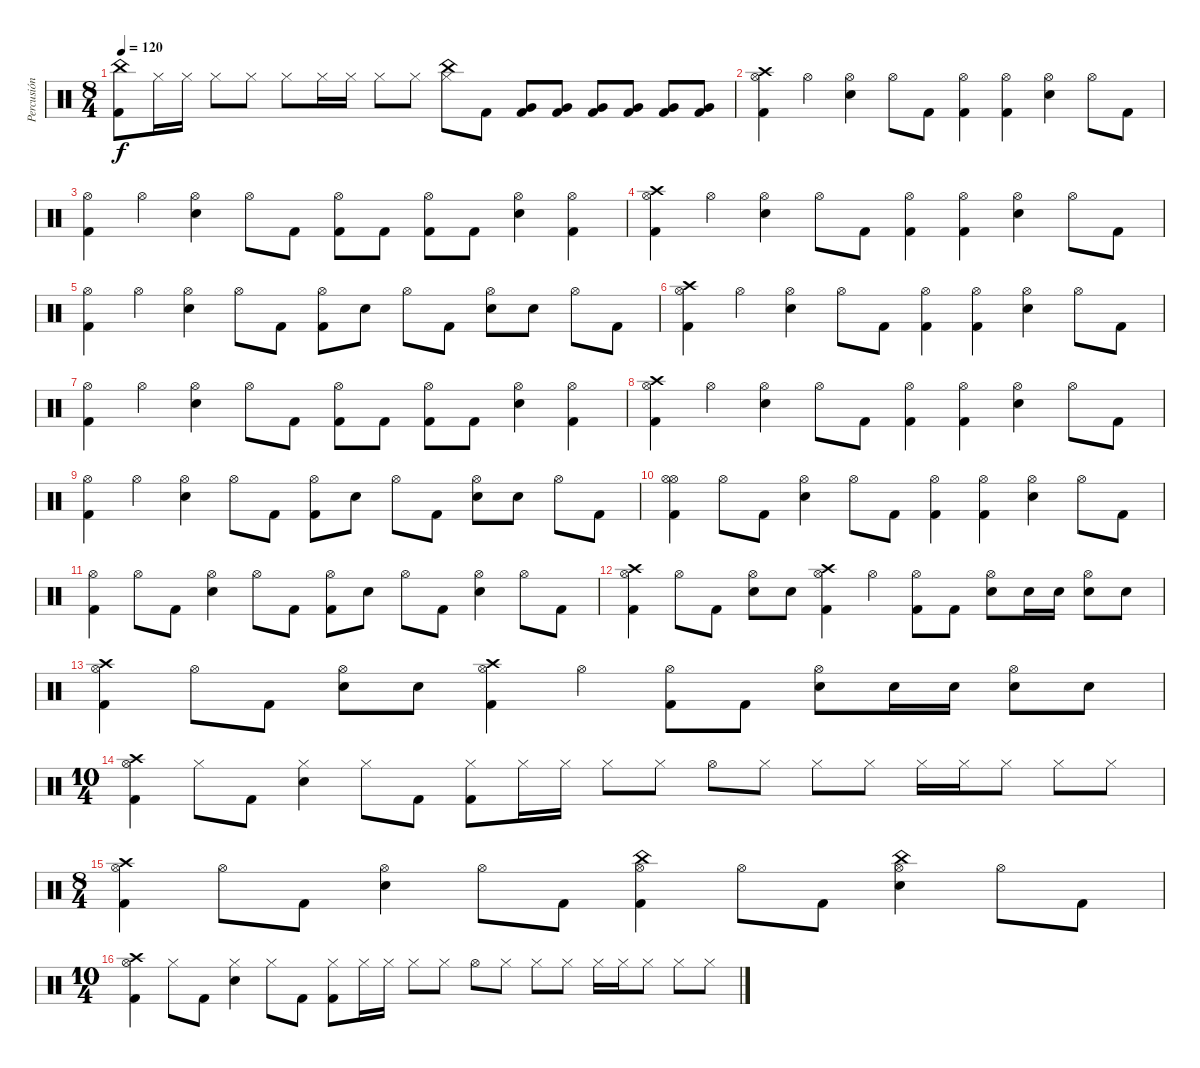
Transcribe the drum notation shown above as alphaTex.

\track ("Percusión" "Percusión") {instrument percussion}
\staff {score}
\articulation defaults
\ts (8 4)
\tempo 120
\clef neutral
\ks c
("China (hit)" "Kick (hit) 2").8{dy f} "Hi-Hat (closed)".16 "Hi-Hat (closed)".16 "Hi-Hat (closed)".8 "Hi-Hat (closed)".8 "Hi-Hat (closed)".8 "Hi-Hat (closed)".16 "Hi-Hat (closed)".16 "Hi-Hat (closed)".8 "Hi-Hat (closed)".8 ("China (hit)" "Hi-Hat (closed)").8 "Kick (hit) 2".8{volume 7} ("Very Low Tom (hit)" "Kick (hit) 2").8{volume 13} ("Very Low Tom (hit)" "Kick (hit) 2").8 ("Very Low Tom (hit)" "Kick (hit) 2").8 ("Very Low Tom (hit)" "Kick (hit) 2").8 ("Very Low Tom (hit)" "Kick (hit) 2").8 ("Very Low Tom (hit)" "Kick (hit) 2").8 |
("Crash high (hit)" "Hi-Hat (open)" "Kick (hit) 2").4 "Hi-Hat (open)".4 ("Hi-Hat (open)" "Electric Snare (hit)").4 "Hi-Hat (open)".8 "Kick (hit) 2".8 ("Hi-Hat (open)" "Kick (hit) 2").4 ("Hi-Hat (open)" "Kick (hit) 2").4 ("Hi-Hat (open)" "Electric Snare (hit)").4 "Hi-Hat (open)".8 "Kick (hit) 2".8 |
("Hi-Hat (open)" "Kick (hit) 2").4 "Hi-Hat (open)".4 ("Hi-Hat (open)" "Electric Snare (hit)").4 "Hi-Hat (open)".8 "Kick (hit) 2".8 ("Hi-Hat (open)" "Kick (hit) 2").8 "Kick (hit) 2".8 ("Hi-Hat (open)" "Kick (hit) 2").8 "Kick (hit) 2".8 ("Hi-Hat (open)" "Electric Snare (hit)").4 ("Hi-Hat (open)" "Kick (hit) 2").4 |
("Crash high (hit)" "Hi-Hat (open)" "Kick (hit) 2").4 "Hi-Hat (open)".4 ("Hi-Hat (open)" "Electric Snare (hit)").4 "Hi-Hat (open)".8 "Kick (hit) 2".8 ("Hi-Hat (open)" "Kick (hit) 2").4 ("Hi-Hat (open)" "Kick (hit) 2").4 ("Hi-Hat (open)" "Electric Snare (hit)").4 "Hi-Hat (open)".8 "Kick (hit) 2".8 |
("Hi-Hat (open)" "Kick (hit) 2").4 "Hi-Hat (open)".4 ("Hi-Hat (open)" "Electric Snare (hit)").4 "Hi-Hat (open)".8 "Kick (hit) 2".8 ("Hi-Hat (open)" "Kick (hit) 2").8 "Electric Snare (hit)".8 "Hi-Hat (open)".8 "Kick (hit) 2".8 ("Hi-Hat (open)" "Electric Snare (hit)").8 "Electric Snare (hit)".8 "Hi-Hat (open)".8 "Kick (hit) 2".8 |
("Crash high (hit)" "Hi-Hat (open)" "Kick (hit) 2").4 "Hi-Hat (open)".4 ("Hi-Hat (open)" "Electric Snare (hit)").4 "Hi-Hat (open)".8 "Kick (hit) 2".8 ("Hi-Hat (open)" "Kick (hit) 2").4 ("Hi-Hat (open)" "Kick (hit) 2").4 ("Hi-Hat (open)" "Electric Snare (hit)").4 "Hi-Hat (open)".8 "Kick (hit) 2".8 |
("Hi-Hat (open)" "Kick (hit) 2").4 "Hi-Hat (open)".4 ("Hi-Hat (open)" "Electric Snare (hit)").4 "Hi-Hat (open)".8 "Kick (hit) 2".8 ("Hi-Hat (open)" "Kick (hit) 2").8 "Kick (hit) 2".8 ("Hi-Hat (open)" "Kick (hit) 2").8 "Kick (hit) 2".8 ("Hi-Hat (open)" "Electric Snare (hit)").4 ("Hi-Hat (open)" "Kick (hit) 2").4 |
("Crash high (hit)" "Hi-Hat (open)" "Kick (hit) 2").4 "Hi-Hat (open)".4 ("Hi-Hat (open)" "Electric Snare (hit)").4 "Hi-Hat (open)".8 "Kick (hit) 2".8 ("Hi-Hat (open)" "Kick (hit) 2").4 ("Hi-Hat (open)" "Kick (hit) 2").4 ("Hi-Hat (open)" "Electric Snare (hit)").4 "Hi-Hat (open)".8 "Kick (hit) 2".8 |
("Hi-Hat (open)" "Kick (hit) 2").4 "Hi-Hat (open)".4 ("Hi-Hat (open)" "Electric Snare (hit)").4 "Hi-Hat (open)".8 "Kick (hit) 2".8 ("Hi-Hat (open)" "Kick (hit) 2").8 "Electric Snare (hit)".8 "Hi-Hat (open)".8 "Kick (hit) 2".8 ("Hi-Hat (open)" "Electric Snare (hit)").8 "Electric Snare (hit)".8 "Hi-Hat (open)".8 "Kick (hit) 2".8 |
("Hi-Hat (open)" "Hi-Hat (open)" "Kick (hit) 2").4 "Hi-Hat (open)".8 "Kick (hit) 2".8 ("Hi-Hat (open)" "Electric Snare (hit)").4 "Hi-Hat (open)".8 "Kick (hit) 2".8 ("Hi-Hat (open)" "Kick (hit) 2").4 ("Hi-Hat (open)" "Kick (hit) 2").4 ("Hi-Hat (open)" "Electric Snare (hit)").4 "Hi-Hat (open)".8 "Kick (hit) 2".8 |
("Hi-Hat (open)" "Kick (hit) 2").4 "Hi-Hat (open)".8 "Kick (hit) 2".8 ("Hi-Hat (open)" "Electric Snare (hit)").4 "Hi-Hat (open)".8 "Kick (hit) 2".8 ("Hi-Hat (open)" "Kick (hit) 2").8 "Electric Snare (hit)".8 "Hi-Hat (open)".8 "Kick (hit) 2".8 ("Hi-Hat (open)" "Electric Snare (hit)").4 "Hi-Hat (open)".8 "Kick (hit) 2".8 |
("Crash high (hit)" "Hi-Hat (open)" "Kick (hit) 2").4 "Hi-Hat (open)".8 "Kick (hit) 2".8 ("Hi-Hat (open)" "Electric Snare (hit)").8 "Electric Snare (hit)".8 ("Crash high (hit)" "Hi-Hat (open)" "Kick (hit) 2").4 "Hi-Hat (open)".4 ("Hi-Hat (open)" "Kick (hit) 2").8 "Kick (hit) 2".8 ("Hi-Hat (open)" "Electric Snare (hit)").8 "Electric Snare (hit)".16 "Electric Snare (hit)".16 ("Hi-Hat (open)" "Electric Snare (hit)").8 "Electric Snare (hit)".8 |
("Crash high (hit)" "Hi-Hat (open)" "Kick (hit) 2").4 "Hi-Hat (open)".8 "Kick (hit) 2".8 ("Hi-Hat (open)" "Electric Snare (hit)").8 "Electric Snare (hit)".8 ("Crash high (hit)" "Hi-Hat (open)" "Kick (hit) 2").4 "Hi-Hat (open)".4 ("Hi-Hat (open)" "Kick (hit) 2").8 "Kick (hit) 2".8 ("Hi-Hat (open)" "Electric Snare (hit)").8 "Electric Snare (hit)".16 "Electric Snare (hit)".16 ("Hi-Hat (open)" "Electric Snare (hit)").8 "Electric Snare (hit)".8 |
\ts (10 4)
("Crash high (hit)" "Hi-Hat (open)" "Kick (hit) 2").4 "Hi-Hat (closed)".8 "Kick (hit) 2".8 ("Hi-Hat (closed)" "Electric Snare (hit)").4 "Hi-Hat (closed)".8 "Kick (hit) 2".8 ("Hi-Hat (closed)" "Kick (hit) 2").8 "Hi-Hat (closed)".16 "Hi-Hat (closed)".16 "Hi-Hat (closed)".8 "Hi-Hat (closed)".8 "Hi-Hat (open)".8 "Hi-Hat (closed)".8 "Hi-Hat (closed)".8 "Hi-Hat (closed)".8 "Hi-Hat (closed)".16 "Hi-Hat (closed)".16 "Hi-Hat (closed)".8 "Hi-Hat (closed)".8 "Hi-Hat (closed)".8 |
\ts (8 4)
("Crash high (hit)" "Hi-Hat (open)" "Kick (hit) 2").4 "Hi-Hat (open)".8 "Kick (hit) 2".8 ("Hi-Hat (open)" "Electric Snare (hit)").4 "Hi-Hat (open)".8 "Kick (hit) 2".8 ("China (hit)" "Hi-Hat (open)" "Kick (hit) 2").4 "Hi-Hat (open)".8 "Kick (hit) 2".8 ("China (hit)" "Hi-Hat (open)" "Electric Snare (hit)").4 "Hi-Hat (open)".8 "Kick (hit) 2".8 |
\ts (10 4)
("Crash high (hit)" "Hi-Hat (open)" "Kick (hit) 2").4 "Hi-Hat (closed)".8 "Kick (hit) 2".8 ("Hi-Hat (closed)" "Electric Snare (hit)").4 "Hi-Hat (closed)".8 "Kick (hit) 2".8 ("Hi-Hat (closed)" "Kick (hit) 2").8 "Hi-Hat (closed)".16 "Hi-Hat (closed)".16 "Hi-Hat (closed)".8 "Hi-Hat (closed)".8 "Hi-Hat (open)".8 "Hi-Hat (closed)".8 "Hi-Hat (closed)".8 "Hi-Hat (closed)".8 "Hi-Hat (closed)".16 "Hi-Hat (closed)".16 "Hi-Hat (closed)".8 "Hi-Hat (closed)".8 "Hi-Hat (closed)".8
